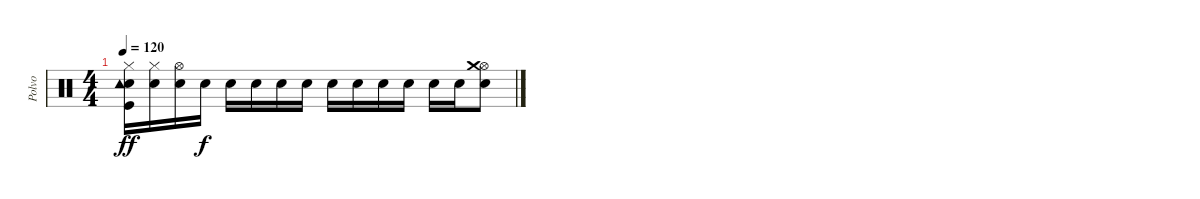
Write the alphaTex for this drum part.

\track ("Polvo" "Polvo") {instrument percussion}
\staff {score}
\articulation defaults
\ts (4 4)
\tempo 120
\clef neutral
\ks c
("Hi-Hat (closed)" "Electric Snare (hit)" "Kick (hit)" "Tambourine (hit)").16{dy ff} ("Hi-Hat (closed)" "Electric Snare (hit)").16 ("Hi-Hat (open)" "Electric Snare (hit)").16 "Electric Snare (hit)".16{dy f} "Electric Snare (hit)".16 "Electric Snare (hit)".16 "Electric Snare (hit)".16 "Electric Snare (hit)".16 "Electric Snare (hit)".16 "Electric Snare (hit)".16 "Electric Snare (hit)".16 "Electric Snare (hit)".16 "Electric Snare (hit)".16 "Electric Snare (hit)".16 ("Hi-Hat (open)" "Electric Snare (hit)" "Crash medium (hit)").8
